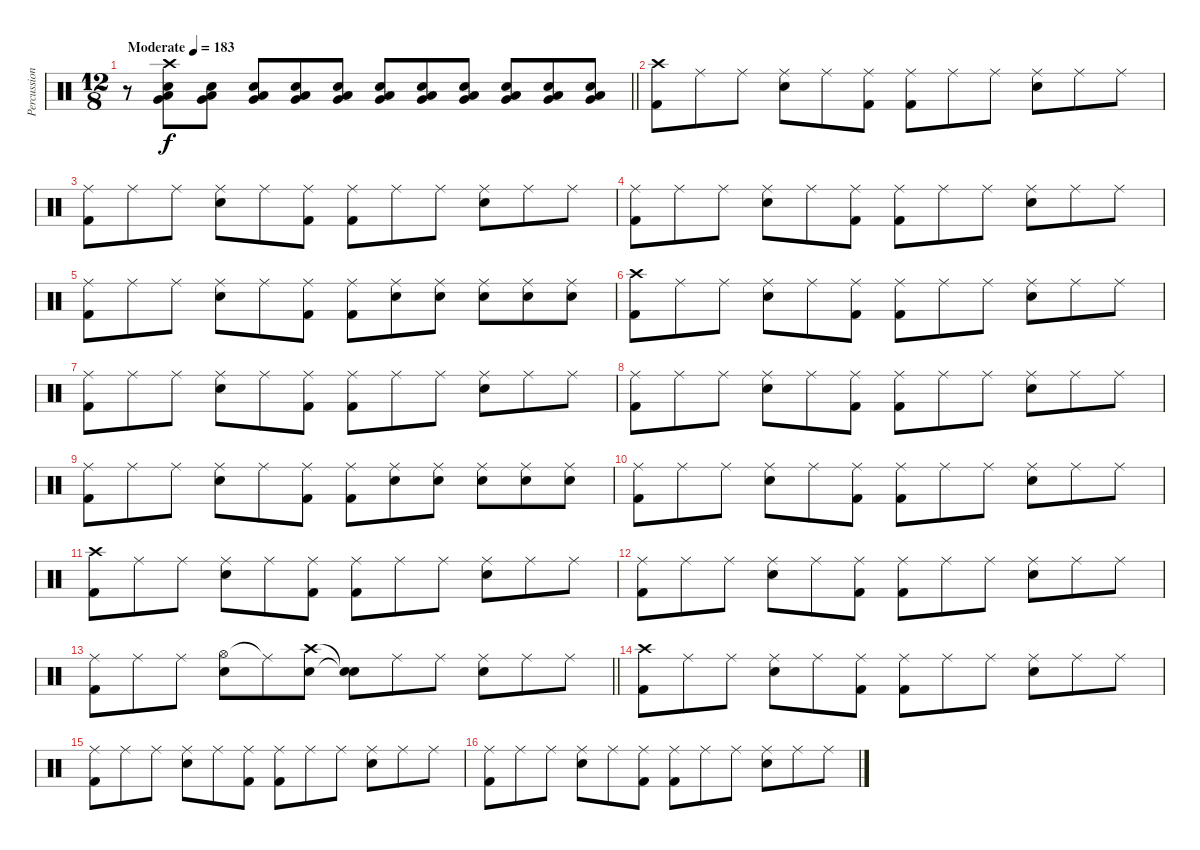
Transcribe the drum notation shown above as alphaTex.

\track ("Percussion" "Percussion") {instrument percussion}
\staff {score}
\articulation defaults
\ts (12 8)
\tempo (183 "Moderate")
\clef neutral
\barLineRight lightlight
\ks c
r.8{dy f} ("Crash high (hit)" "Snare (hit) 2" "Low Floor Tom (hit)" "Very Low Tom (hit)").8 ("Snare (hit) 2" "Low Floor Tom (hit)" "Very Low Tom (hit)").8 ("Snare (hit) 2" "Low Floor Tom (hit)" "Very Low Tom (hit)").8 ("Snare (hit) 2" "Low Floor Tom (hit)" "Very Low Tom (hit)").8 ("Snare (hit) 2" "Low Floor Tom (hit)" "Very Low Tom (hit)").8 ("Snare (hit) 2" "Low Floor Tom (hit)" "Very Low Tom (hit)").8 ("Snare (hit) 2" "Low Floor Tom (hit)" "Very Low Tom (hit)").8 ("Snare (hit) 2" "Low Floor Tom (hit)" "Very Low Tom (hit)").8 ("Snare (hit) 2" "Low Floor Tom (hit)" "Very Low Tom (hit)").8 ("Snare (hit) 2" "Low Floor Tom (hit)" "Very Low Tom (hit)").8 ("Snare (hit) 2" "Low Floor Tom (hit)" "Very Low Tom (hit)").8 |
("Crash high (hit)" "Kick (hit) 2").8 "Ride (middle)".8 "Ride (middle)".8 ("Ride (middle)" "Snare (hit) 2").8 "Ride (middle)".8 ("Ride (middle)" "Kick (hit) 2").8 ("Ride (middle)" "Kick (hit) 2").8 "Ride (middle)".8 "Ride (middle)".8 ("Ride (middle)" "Snare (hit) 2").8 "Ride (middle)".8 "Ride (middle)".8 |
("Ride (middle)" "Kick (hit) 2").8 "Ride (middle)".8 "Ride (middle)".8 ("Ride (middle)" "Snare (hit) 2").8 "Ride (middle)".8 ("Ride (middle)" "Kick (hit) 2").8 ("Ride (middle)" "Kick (hit) 2").8 "Ride (middle)".8 "Ride (middle)".8 ("Ride (middle)" "Snare (hit) 2").8 "Ride (middle)".8 "Ride (middle)".8 |
("Ride (middle)" "Kick (hit) 2").8 "Ride (middle)".8 "Ride (middle)".8 ("Ride (middle)" "Snare (hit) 2").8 "Ride (middle)".8 ("Ride (middle)" "Kick (hit) 2").8 ("Ride (middle)" "Kick (hit) 2").8 "Ride (middle)".8 "Ride (middle)".8 ("Ride (middle)" "Snare (hit) 2").8 "Ride (middle)".8 "Ride (middle)".8 |
("Ride (middle)" "Kick (hit) 2").8 "Ride (middle)".8 "Ride (middle)".8 ("Ride (middle)" "Snare (hit) 2").8 "Ride (middle)".8 ("Ride (middle)" "Kick (hit) 2").8 ("Ride (middle)" "Kick (hit) 2").8 ("Ride (middle)" "Snare (hit) 2").8 ("Ride (middle)" "Snare (hit) 2").8 ("Ride (middle)" "Snare (hit) 2").8 ("Ride (middle)" "Snare (hit) 2").8 ("Ride (middle)" "Snare (hit) 2").8 |
("Crash high (hit)" "Kick (hit) 2").8 "Ride (middle)".8 "Ride (middle)".8 ("Ride (middle)" "Snare (hit) 2").8 "Ride (middle)".8 ("Ride (middle)" "Kick (hit) 2").8 ("Ride (middle)" "Kick (hit) 2").8 "Ride (middle)".8 "Ride (middle)".8 ("Ride (middle)" "Snare (hit) 2").8 "Ride (middle)".8 "Ride (middle)".8 |
("Ride (middle)" "Kick (hit) 2").8 "Ride (middle)".8 "Ride (middle)".8 ("Ride (middle)" "Snare (hit) 2").8 "Ride (middle)".8 ("Ride (middle)" "Kick (hit) 2").8 ("Ride (middle)" "Kick (hit) 2").8 "Ride (middle)".8 "Ride (middle)".8 ("Ride (middle)" "Snare (hit) 2").8 "Ride (middle)".8 "Ride (middle)".8 |
("Ride (middle)" "Kick (hit) 2").8 "Ride (middle)".8 "Ride (middle)".8 ("Ride (middle)" "Snare (hit) 2").8 "Ride (middle)".8 ("Ride (middle)" "Kick (hit) 2").8 ("Ride (middle)" "Kick (hit) 2").8 "Ride (middle)".8 "Ride (middle)".8 ("Ride (middle)" "Snare (hit) 2").8 "Ride (middle)".8 "Ride (middle)".8 |
("Ride (middle)" "Kick (hit) 2").8 "Ride (middle)".8 "Ride (middle)".8 ("Ride (middle)" "Snare (hit) 2").8 "Ride (middle)".8 ("Ride (middle)" "Kick (hit) 2").8 ("Ride (middle)" "Kick (hit) 2").8 ("Ride (middle)" "Snare (hit) 2").8 ("Ride (middle)" "Snare (hit) 2").8 ("Ride (middle)" "Snare (hit) 2").8 ("Ride (middle)" "Snare (hit) 2").8 ("Ride (middle)" "Snare (hit) 2").8 |
("Ride (middle)" "Kick (hit) 2").8 "Ride (middle)".8 "Ride (middle)".8 ("Ride (middle)" "Snare (hit) 2").8 "Ride (middle)".8 ("Ride (middle)" "Kick (hit) 2").8 ("Ride (middle)" "Kick (hit) 2").8 "Ride (middle)".8 "Ride (middle)".8 ("Ride (middle)" "Snare (hit) 2").8 "Ride (middle)".8 "Ride (middle)".8 |
("Crash high (hit)" "Kick (hit) 2").8 "Ride (middle)".8 "Ride (middle)".8 ("Ride (middle)" "Snare (hit) 2").8 "Ride (middle)".8 ("Ride (middle)" "Kick (hit) 2").8 ("Ride (middle)" "Kick (hit) 2").8 "Ride (middle)".8 "Ride (middle)".8 ("Ride (middle)" "Snare (hit) 2").8 "Ride (middle)".8 "Ride (middle)".8 |
("Ride (middle)" "Kick (hit) 2").8 "Ride (middle)".8 "Ride (middle)".8 ("Ride (middle)" "Snare (hit) 2").8 "Ride (middle)".8 ("Ride (middle)" "Kick (hit) 2").8 ("Ride (middle)" "Kick (hit) 2").8 "Ride (middle)".8 "Ride (middle)".8 ("Ride (middle)" "Snare (hit) 2").8 "Ride (middle)".8 "Ride (middle)".8 |
\barLineRight lightlight
("Ride (middle)" "Kick (hit) 2").8 "Ride (middle)".8 "Ride (middle)".8 ("Hi-Hat (open)" "Snare (hit) 2").8 "Ride (middle)"{t}.8 ("Crash high (hit)" "Snare (hit) 2").8 ("Snare (hit)"{t} "Snare (hit)"{t}).8 "Ride (middle)".8 "Ride (middle)".8 ("Ride (middle)" "Snare (hit) 2").8 "Ride (middle)".8 "Ride (middle)".8 |
("Crash high (hit)" "Kick (hit) 2").8 "Ride (middle)".8 "Ride (middle)".8 ("Ride (middle)" "Snare (hit) 2").8 "Ride (middle)".8 ("Ride (middle)" "Kick (hit) 2").8 ("Ride (middle)" "Kick (hit) 2").8 "Ride (middle)".8 "Ride (middle)".8 ("Ride (middle)" "Snare (hit) 2").8 "Ride (middle)".8 "Ride (middle)".8 |
("Ride (middle)" "Kick (hit) 2").8 "Ride (middle)".8 "Ride (middle)".8 ("Ride (middle)" "Snare (hit) 2").8 "Ride (middle)".8 ("Ride (middle)" "Kick (hit) 2").8 ("Ride (middle)" "Kick (hit) 2").8 "Ride (middle)".8 "Ride (middle)".8 ("Ride (middle)" "Snare (hit) 2").8 "Ride (middle)".8 "Ride (middle)".8 |
("Ride (middle)" "Kick (hit) 2").8 "Ride (middle)".8 "Ride (middle)".8 ("Ride (middle)" "Snare (hit) 2").8 "Ride (middle)".8 ("Ride (middle)" "Kick (hit) 2").8 ("Ride (middle)" "Kick (hit) 2").8 "Ride (middle)".8 "Ride (middle)".8 ("Ride (middle)" "Snare (hit) 2").8 "Ride (middle)".8 "Ride (middle)".8
